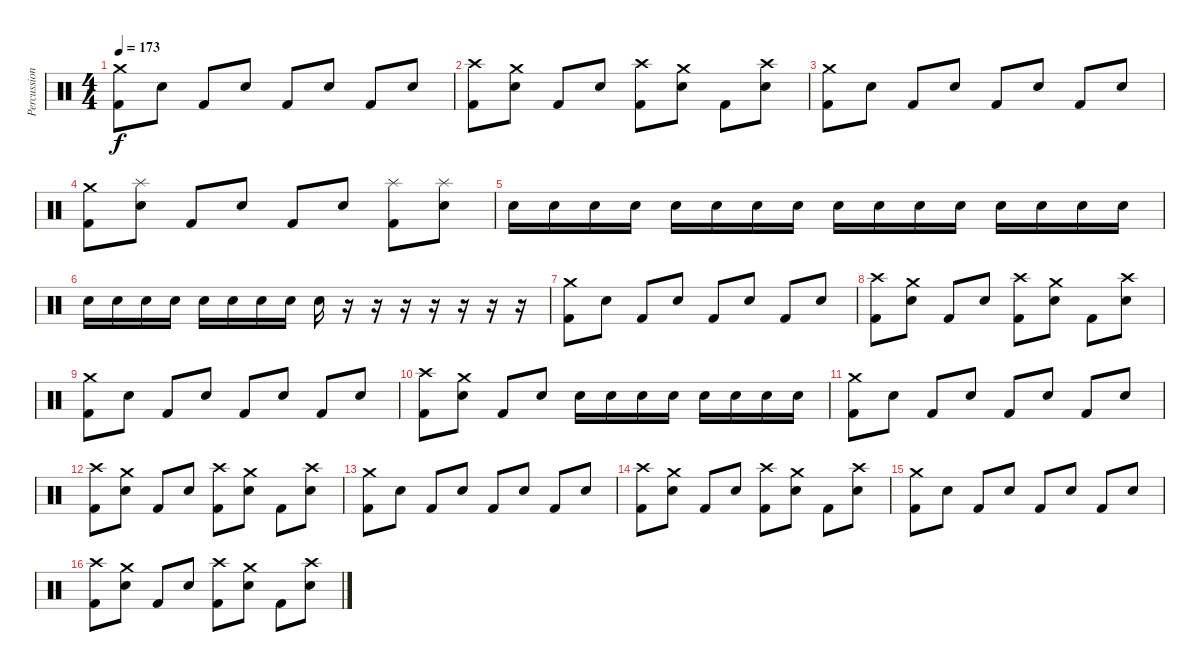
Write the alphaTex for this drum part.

\track ("Percussions" "Percussion") {instrument percussion}
\staff {score}
\articulation defaults
\ts (4 4)
\tempo 173
\clef neutral
\ks c
("Kick (hit) 2" "Crash medium (hit)").8{dy f} "Electric Snare (hit)".8 "Kick (hit) 2".8 "Electric Snare (hit)".8 "Kick (hit) 2".8 "Electric Snare (hit)".8 "Kick (hit) 2".8 "Electric Snare (hit)".8 |
("Kick (hit) 2" "Crash high (hit)").8 ("Electric Snare (hit)" "Crash medium (hit)").8 "Kick (hit) 2".8 "Electric Snare (hit)".8 ("Kick (hit) 2" "Crash high (hit)").8 ("Electric Snare (hit)" "Crash medium (hit)").8 "Kick (hit) 2".8 ("Electric Snare (hit)" "Crash high (hit)").8 |
("Kick (hit) 2" "Crash medium (hit)").8 "Electric Snare (hit)".8 "Kick (hit) 2".8 "Electric Snare (hit)".8 "Kick (hit) 2".8 "Electric Snare (hit)".8 "Kick (hit) 2".8 "Electric Snare (hit)".8 |
("Kick (hit) 2" "Crash medium (hit)").8 ("Electric Snare (hit)" "Splash (hit)").8 "Kick (hit) 2".8 "Electric Snare (hit)".8 "Kick (hit) 2".8 "Electric Snare (hit)".8 ("Kick (hit) 2" "Splash (hit)").8 ("Electric Snare (hit)" "Splash (hit)").8 |
"Electric Snare (hit)".16 "Electric Snare (hit)".16 "Electric Snare (hit)".16 "Electric Snare (hit)".16 "Electric Snare (hit)".16 "Electric Snare (hit)".16 "Electric Snare (hit)".16 "Electric Snare (hit)".16 "Electric Snare (hit)".16 "Electric Snare (hit)".16 "Electric Snare (hit)".16 "Electric Snare (hit)".16 "Electric Snare (hit)".16 "Electric Snare (hit)".16 "Electric Snare (hit)".16 "Electric Snare (hit)".16 |
"Electric Snare (hit)".16 "Electric Snare (hit)".16 "Electric Snare (hit)".16 "Electric Snare (hit)".16 "Electric Snare (hit)".16 "Electric Snare (hit)".16 "Electric Snare (hit)".16 "Electric Snare (hit)".16 "Electric Snare (hit)".16 r.16 r.16 r.16 r.16 r.16 r.16 r.16 |
("Kick (hit) 2" "Crash medium (hit)").8 "Electric Snare (hit)".8 "Kick (hit) 2".8 "Electric Snare (hit)".8 "Kick (hit) 2".8 "Electric Snare (hit)".8 "Kick (hit) 2".8 "Electric Snare (hit)".8 |
("Kick (hit) 2" "Crash high (hit)").8 ("Electric Snare (hit)" "Crash medium (hit)").8 "Kick (hit) 2".8 "Electric Snare (hit)".8 ("Kick (hit) 2" "Crash high (hit)").8 ("Electric Snare (hit)" "Crash medium (hit)").8 "Kick (hit) 2".8 ("Electric Snare (hit)" "Crash high (hit)").8 |
("Kick (hit) 2" "Crash medium (hit)").8 "Electric Snare (hit)".8 "Kick (hit) 2".8 "Electric Snare (hit)".8 "Kick (hit) 2".8 "Electric Snare (hit)".8 "Kick (hit) 2".8 "Electric Snare (hit)".8 |
("Kick (hit) 2" "Crash high (hit)").8 ("Electric Snare (hit)" "Crash medium (hit)").8 "Kick (hit) 2".8 "Electric Snare (hit)".8 "Electric Snare (hit)".16 "Electric Snare (hit)".16 "Electric Snare (hit)".16 "Electric Snare (hit)".16 "Electric Snare (hit)".16 "Electric Snare (hit)".16 "Electric Snare (hit)".16 "Electric Snare (hit)".16 |
("Kick (hit) 2" "Crash medium (hit)").8 "Electric Snare (hit)".8 "Kick (hit) 2".8 "Electric Snare (hit)".8 "Kick (hit) 2".8 "Electric Snare (hit)".8 "Kick (hit) 2".8 "Electric Snare (hit)".8 |
("Kick (hit) 2" "Crash high (hit)").8 ("Electric Snare (hit)" "Crash medium (hit)").8 "Kick (hit) 2".8 "Electric Snare (hit)".8 ("Kick (hit) 2" "Crash high (hit)").8 ("Electric Snare (hit)" "Crash medium (hit)").8 "Kick (hit) 2".8 ("Electric Snare (hit)" "Crash high (hit)").8 |
("Kick (hit) 2" "Crash medium (hit)").8 "Electric Snare (hit)".8 "Kick (hit) 2".8 "Electric Snare (hit)".8 "Kick (hit) 2".8 "Electric Snare (hit)".8 "Kick (hit) 2".8 "Electric Snare (hit)".8 |
("Kick (hit) 2" "Crash high (hit)").8 ("Electric Snare (hit)" "Crash medium (hit)").8 "Kick (hit) 2".8 "Electric Snare (hit)".8 ("Kick (hit) 2" "Crash high (hit)").8 ("Electric Snare (hit)" "Crash medium (hit)").8 "Kick (hit) 2".8 ("Electric Snare (hit)" "Crash high (hit)").8 |
("Kick (hit) 2" "Crash medium (hit)").8 "Electric Snare (hit)".8 "Kick (hit) 2".8 "Electric Snare (hit)".8 "Kick (hit) 2".8 "Electric Snare (hit)".8 "Kick (hit) 2".8 "Electric Snare (hit)".8 |
("Kick (hit) 2" "Crash high (hit)").8 ("Electric Snare (hit)" "Crash medium (hit)").8 "Kick (hit) 2".8 "Electric Snare (hit)".8 ("Kick (hit) 2" "Crash high (hit)").8 ("Electric Snare (hit)" "Crash medium (hit)").8 "Kick (hit) 2".8 ("Electric Snare (hit)" "Crash high (hit)").8
